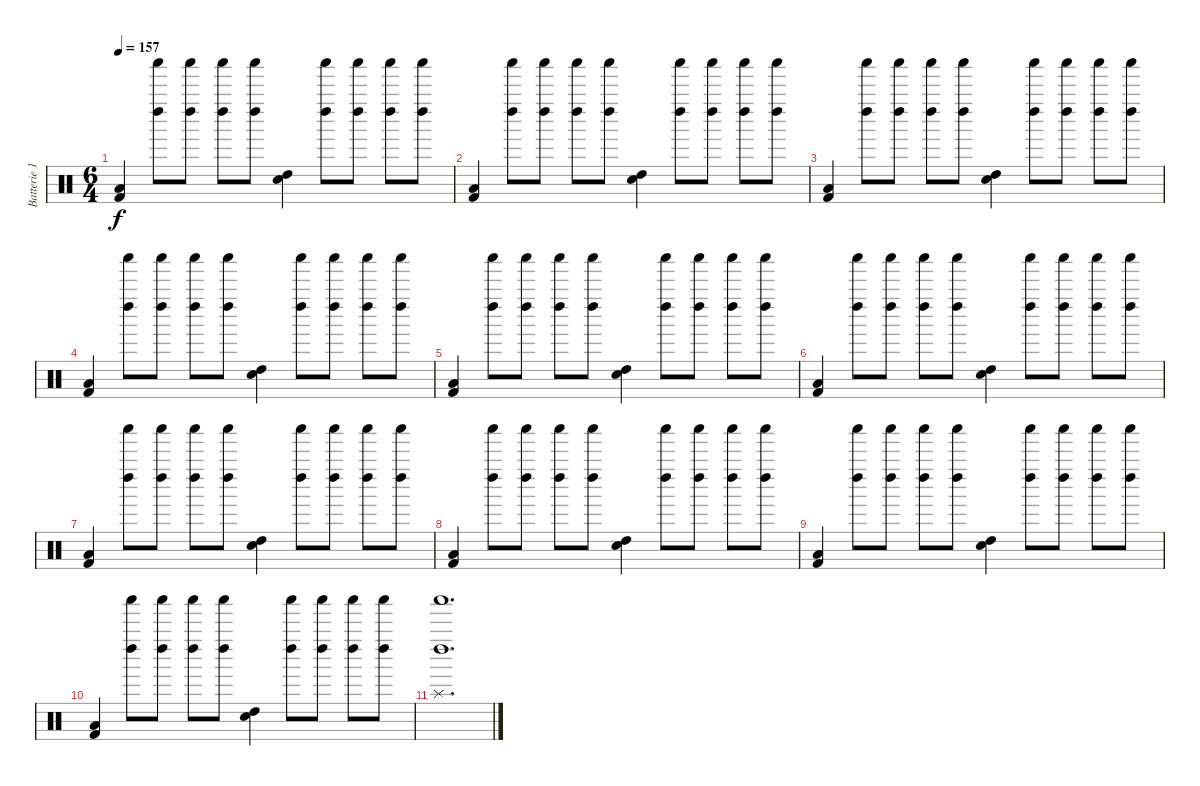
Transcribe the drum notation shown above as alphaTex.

\track ("Batterie 1" "Batterie 1") {instrument percussion}
\staff {score}
\articulation defaults
\ts (6 4)
\tempo 157
\clef neutral
\ks c
("Low Floor Tom (hit)" "Kick (hit) 2").4{dy f} ("Left Maraca (hit)" "Shaker (hit)").8 ("Left Maraca (hit)" "Shaker (hit)").8 ("Left Maraca (hit)" "Shaker (hit)").8 ("Left Maraca (hit)" "Shaker (hit)").8 ("High Tom (hit)" "Electric Snare (hit)").4 ("Left Maraca (hit)" "Shaker (hit)").8 ("Left Maraca (hit)" "Shaker (hit)").8 ("Left Maraca (hit)" "Shaker (hit)").8 ("Left Maraca (hit)" "Shaker (hit)").8 |
("Low Floor Tom (hit)" "Kick (hit) 2").4 ("Left Maraca (hit)" "Shaker (hit)").8 ("Left Maraca (hit)" "Shaker (hit)").8 ("Left Maraca (hit)" "Shaker (hit)").8 ("Left Maraca (hit)" "Shaker (hit)").8 ("High Tom (hit)" "Electric Snare (hit)").4 ("Left Maraca (hit)" "Shaker (hit)").8 ("Left Maraca (hit)" "Shaker (hit)").8 ("Left Maraca (hit)" "Shaker (hit)").8 ("Left Maraca (hit)" "Shaker (hit)").8 |
("Low Floor Tom (hit)" "Kick (hit) 2").4 ("Left Maraca (hit)" "Shaker (hit)").8 ("Left Maraca (hit)" "Shaker (hit)").8 ("Left Maraca (hit)" "Shaker (hit)").8 ("Left Maraca (hit)" "Shaker (hit)").8 ("High Tom (hit)" "Electric Snare (hit)").4 ("Left Maraca (hit)" "Shaker (hit)").8 ("Left Maraca (hit)" "Shaker (hit)").8 ("Left Maraca (hit)" "Shaker (hit)").8 ("Left Maraca (hit)" "Shaker (hit)").8 |
("Low Floor Tom (hit)" "Kick (hit) 2").4 ("Left Maraca (hit)" "Shaker (hit)").8 ("Left Maraca (hit)" "Shaker (hit)").8 ("Left Maraca (hit)" "Shaker (hit)").8 ("Left Maraca (hit)" "Shaker (hit)").8 ("High Tom (hit)" "Electric Snare (hit)").4 ("Left Maraca (hit)" "Shaker (hit)").8 ("Left Maraca (hit)" "Shaker (hit)").8 ("Left Maraca (hit)" "Shaker (hit)").8 ("Left Maraca (hit)" "Shaker (hit)").8 |
("Low Floor Tom (hit)" "Kick (hit) 2").4 ("Left Maraca (hit)" "Shaker (hit)").8 ("Left Maraca (hit)" "Shaker (hit)").8 ("Left Maraca (hit)" "Shaker (hit)").8 ("Left Maraca (hit)" "Shaker (hit)").8 ("High Tom (hit)" "Electric Snare (hit)").4 ("Left Maraca (hit)" "Shaker (hit)").8 ("Left Maraca (hit)" "Shaker (hit)").8 ("Left Maraca (hit)" "Shaker (hit)").8 ("Left Maraca (hit)" "Shaker (hit)").8 |
("Low Floor Tom (hit)" "Kick (hit) 2").4 ("Left Maraca (hit)" "Shaker (hit)").8 ("Left Maraca (hit)" "Shaker (hit)").8 ("Left Maraca (hit)" "Shaker (hit)").8 ("Left Maraca (hit)" "Shaker (hit)").8 ("High Tom (hit)" "Electric Snare (hit)").4 ("Left Maraca (hit)" "Shaker (hit)").8 ("Left Maraca (hit)" "Shaker (hit)").8 ("Left Maraca (hit)" "Shaker (hit)").8 ("Left Maraca (hit)" "Shaker (hit)").8 |
("Low Floor Tom (hit)" "Kick (hit) 2").4 ("Left Maraca (hit)" "Shaker (hit)").8 ("Left Maraca (hit)" "Shaker (hit)").8 ("Left Maraca (hit)" "Shaker (hit)").8 ("Left Maraca (hit)" "Shaker (hit)").8 ("High Tom (hit)" "Electric Snare (hit)").4 ("Left Maraca (hit)" "Shaker (hit)").8 ("Left Maraca (hit)" "Shaker (hit)").8 ("Left Maraca (hit)" "Shaker (hit)").8 ("Left Maraca (hit)" "Shaker (hit)").8 |
("Low Floor Tom (hit)" "Kick (hit) 2").4 ("Left Maraca (hit)" "Shaker (hit)").8 ("Left Maraca (hit)" "Shaker (hit)").8 ("Left Maraca (hit)" "Shaker (hit)").8 ("Left Maraca (hit)" "Shaker (hit)").8 ("High Tom (hit)" "Electric Snare (hit)").4 ("Left Maraca (hit)" "Shaker (hit)").8 ("Left Maraca (hit)" "Shaker (hit)").8 ("Left Maraca (hit)" "Shaker (hit)").8 ("Left Maraca (hit)" "Shaker (hit)").8 |
("Low Floor Tom (hit)" "Kick (hit) 2").4 ("Left Maraca (hit)" "Shaker (hit)").8 ("Left Maraca (hit)" "Shaker (hit)").8 ("Left Maraca (hit)" "Shaker (hit)").8 ("Left Maraca (hit)" "Shaker (hit)").8 ("High Tom (hit)" "Electric Snare (hit)").4 ("Left Maraca (hit)" "Shaker (hit)").8 ("Left Maraca (hit)" "Shaker (hit)").8 ("Left Maraca (hit)" "Shaker (hit)").8 ("Left Maraca (hit)" "Shaker (hit)").8 |
("Low Floor Tom (hit)" "Kick (hit) 2").4 ("Left Maraca (hit)" "Shaker (hit)").8 ("Left Maraca (hit)" "Shaker (hit)").8 ("Left Maraca (hit)" "Shaker (hit)").8 ("Left Maraca (hit)" "Shaker (hit)").8 ("High Tom (hit)" "Electric Snare (hit)").4 ("Left Maraca (hit)" "Shaker (hit)").8 ("Left Maraca (hit)" "Shaker (hit)").8 ("Left Maraca (hit)" "Shaker (hit)").8 ("Left Maraca (hit)" "Shaker (hit)").8 |
("Left Maraca (hit)" "Shaker (hit)" "Splash (hit)").1{d}
